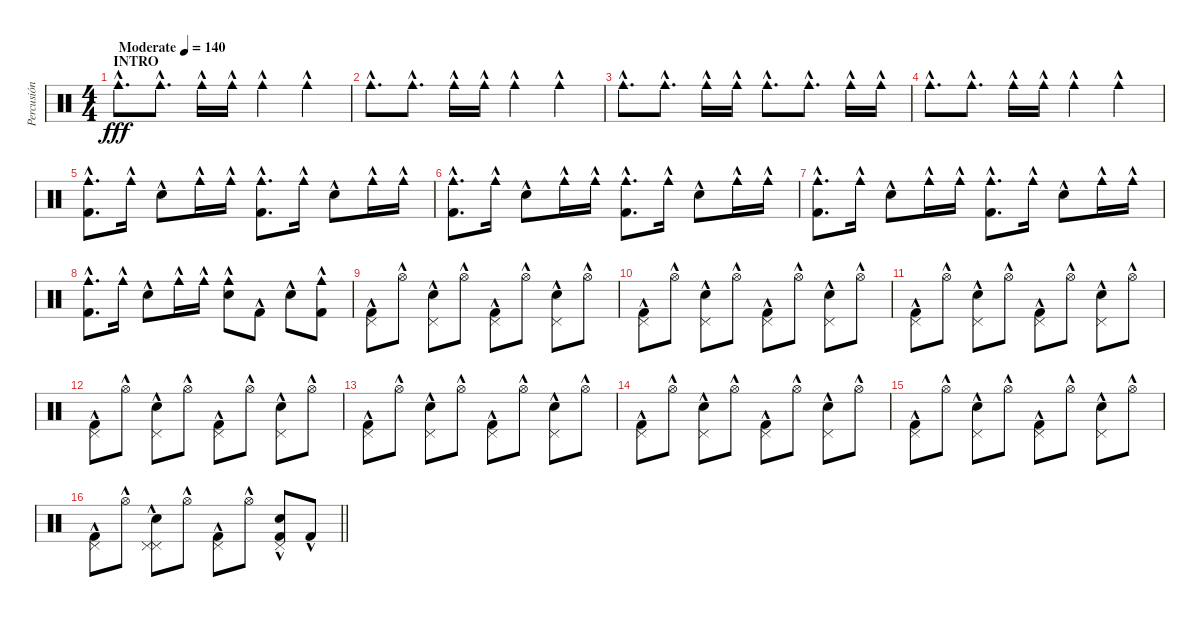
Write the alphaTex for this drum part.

\track ("Percusión" "Percusión") {instrument percussion}
\staff {score}
\articulation defaults
\ts (4 4)
\section ("" "INTRO")
\tempo (140 "Moderate")
\clef neutral
\ks c "Cowbell medium (hit)"{hac}.8{d dy fff} "Cowbell medium (hit)"{hac}.8{d} "Cowbell medium (hit)"{hac}.16 "Cowbell medium (hit)"{hac}.16 "Cowbell medium (hit)"{hac}.4 "Cowbell medium (hit)"{hac}.4
|
"Cowbell medium (hit)"{hac}.8{d} "Cowbell medium (hit)"{hac}.8{d} "Cowbell medium (hit)"{hac}.16 "Cowbell medium (hit)"{hac}.16 "Cowbell medium (hit)"{hac}.4 "Cowbell medium (hit)"{hac}.4 |
"Cowbell medium (hit)"{hac}.8{d} "Cowbell medium (hit)"{hac}.8{d} "Cowbell medium (hit)"{hac}.16 "Cowbell medium (hit)"{hac}.16 "Cowbell medium (hit)"{hac}.8{d} "Cowbell medium (hit)"{hac}.8{d} "Cowbell medium (hit)"{hac}.16 "Cowbell medium (hit)"{hac}.16 |
"Cowbell medium (hit)"{hac}.8{d} "Cowbell medium (hit)"{hac}.8{d} "Cowbell medium (hit)"{hac}.16 "Cowbell medium (hit)"{hac}.16 "Cowbell medium (hit)"{hac}.4 "Cowbell medium (hit)"{hac}.4 |
("Cowbell medium (hit)"{hac} "Kick (hit) 2"{hac}).8{d} "Cowbell medium (hit)"{hac}.16 "Snare (hit) 2"{hac}.8 "Cowbell medium (hit)"{hac}.16 "Cowbell medium (hit)"{hac}.16 ("Cowbell medium (hit)"{hac} "Kick (hit) 2"{hac}).8{d} "Cowbell medium (hit)"{hac}.16 "Snare (hit) 2"{hac}.8 "Cowbell medium (hit)"{hac}.16 "Cowbell medium (hit)"{hac}.16 |
("Cowbell medium (hit)"{hac} "Kick (hit) 2"{hac}).8{d} "Cowbell medium (hit)"{hac}.16 "Snare (hit) 2"{hac}.8 "Cowbell medium (hit)"{hac}.16 "Cowbell medium (hit)"{hac}.16 ("Cowbell medium (hit)"{hac} "Kick (hit) 2"{hac}).8{d} "Cowbell medium (hit)"{hac}.16 "Snare (hit) 2"{hac}.8 "Cowbell medium (hit)"{hac}.16 "Cowbell medium (hit)"{hac}.16 |
("Cowbell medium (hit)"{hac} "Kick (hit) 2"{hac}).8{d} "Cowbell medium (hit)"{hac}.16 "Snare (hit) 2"{hac}.8 "Cowbell medium (hit)"{hac}.16 "Cowbell medium (hit)"{hac}.16 ("Cowbell medium (hit)"{hac} "Kick (hit) 2"{hac}).8{d} "Cowbell medium (hit)"{hac}.16 "Snare (hit) 2"{hac}.8 "Cowbell medium (hit)"{hac}.16 "Cowbell medium (hit)"{hac}.16 |
("Cowbell medium (hit)"{hac} "Kick (hit) 2"{hac}).8{d} "Cowbell medium (hit)"{hac}.16 "Snare (hit) 2"{hac}.8 "Cowbell medium (hit)"{hac}.16 "Cowbell medium (hit)"{hac}.16 ("Snare (hit) 2"{hac} "Cowbell medium (hit)"{hac}).8 "Kick (hit) 2"{hac}.8 "Snare (hit) 2"{hac}.8 ("Cowbell medium (hit)"{hac} "Kick (hit) 2"{hac}).8 |
("Kick (hit) 2"{hac} "Pedal Hi-Hat (hit)"{hac}).8 "Hi-Hat (open)"{hac}.8 ("Snare (hit) 2"{hac} "Pedal Hi-Hat (hit)"{hac}).8 "Hi-Hat (open)"{hac}.8 ("Kick (hit) 2"{hac} "Pedal Hi-Hat (hit)"{hac}).8 "Hi-Hat (open)"{hac}.8 ("Snare (hit) 2"{hac} "Pedal Hi-Hat (hit)"{hac}).8 "Hi-Hat (open)"{hac}.8 |
("Kick (hit) 2"{hac} "Pedal Hi-Hat (hit)"{hac}).8 "Hi-Hat (open)"{hac}.8 ("Snare (hit) 2"{hac} "Pedal Hi-Hat (hit)"{hac}).8 "Hi-Hat (open)"{hac}.8 ("Kick (hit) 2"{hac} "Pedal Hi-Hat (hit)"{hac}).8 "Hi-Hat (open)"{hac}.8 ("Snare (hit) 2"{hac} "Pedal Hi-Hat (hit)"{hac}).8 "Hi-Hat (open)"{hac}.8 |
("Kick (hit) 2"{hac} "Pedal Hi-Hat (hit)"{hac}).8 "Hi-Hat (open)"{hac}.8 ("Snare (hit) 2"{hac} "Pedal Hi-Hat (hit)"{hac}).8 "Hi-Hat (open)"{hac}.8 ("Kick (hit) 2"{hac} "Pedal Hi-Hat (hit)"{hac}).8 "Hi-Hat (open)"{hac}.8 ("Snare (hit) 2"{hac} "Pedal Hi-Hat (hit)"{hac}).8 "Hi-Hat (open)"{hac}.8 |
("Kick (hit) 2"{hac} "Pedal Hi-Hat (hit)"{hac}).8 "Hi-Hat (open)"{hac}.8 ("Snare (hit) 2"{hac} "Pedal Hi-Hat (hit)"{hac}).8 "Hi-Hat (open)"{hac}.8 ("Kick (hit) 2"{hac} "Pedal Hi-Hat (hit)"{hac}).8 "Hi-Hat (open)"{hac}.8 ("Snare (hit) 2"{hac} "Pedal Hi-Hat (hit)"{hac}).8 "Hi-Hat (open)"{hac}.8 |
("Kick (hit) 2"{hac} "Pedal Hi-Hat (hit)"{hac}).8 "Hi-Hat (open)"{hac}.8 ("Snare (hit) 2"{hac} "Pedal Hi-Hat (hit)"{hac}).8 "Hi-Hat (open)"{hac}.8 ("Kick (hit) 2"{hac} "Pedal Hi-Hat (hit)"{hac}).8 "Hi-Hat (open)"{hac}.8 ("Snare (hit) 2"{hac} "Pedal Hi-Hat (hit)"{hac}).8 "Hi-Hat (open)"{hac}.8 |
("Kick (hit) 2"{hac} "Pedal Hi-Hat (hit)"{hac}).8 "Hi-Hat (open)"{hac}.8 ("Snare (hit) 2"{hac} "Pedal Hi-Hat (hit)"{hac}).8 "Hi-Hat (open)"{hac}.8 ("Kick (hit) 2"{hac} "Pedal Hi-Hat (hit)"{hac}).8 "Hi-Hat (open)"{hac}.8 ("Snare (hit) 2"{hac} "Pedal Hi-Hat (hit)"{hac}).8 "Hi-Hat (open)"{hac}.8 |
("Kick (hit) 2"{hac} "Pedal Hi-Hat (hit)"{hac}).8 "Hi-Hat (open)"{hac}.8 ("Snare (hit) 2"{hac} "Pedal Hi-Hat (hit)"{hac}).8 "Hi-Hat (open)"{hac}.8 ("Kick (hit) 2"{hac} "Pedal Hi-Hat (hit)"{hac}).8 "Hi-Hat (open)"{hac}.8 ("Snare (hit) 2"{hac} "Pedal Hi-Hat (hit)"{hac}).8 "Hi-Hat (open)"{hac}.8 |
\barLineRight lightlight
("Kick (hit) 2"{hac} "Pedal Hi-Hat (hit)"{hac}).8 "Hi-Hat (open)"{hac}.8 ("Snare (hit) 2"{hac} "Pedal Hi-Hat (hit)"{hac} "Pedal Hi-Hat (hit)"{hac}).8 "Hi-Hat (open)"{hac}.8 ("Kick (hit) 2"{hac} "Pedal Hi-Hat (hit)"{hac}).8 "Hi-Hat (open)"{hac}.8 ("Snare (hit) 2"{hac} "Kick (hit) 2"{hac} "Pedal Hi-Hat (hit)"{hac}).8 "Kick (hit) 2"{hac}.8
